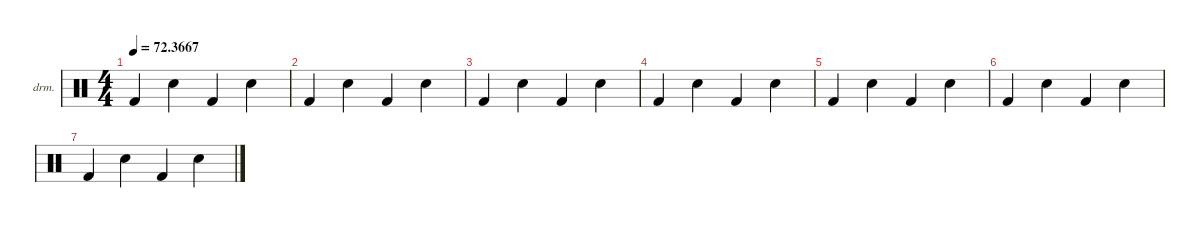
\defaultSystemsLayout 4
\hideDynamics
\bracketExtendMode nobrackets
\firstSystemTrackNameOrientation horizontal
\otherSystemsTrackNameOrientation horizontal
\track ("Drumkit" "drm.") {instrument percussion}
\staff {score}
\articulation defaults
\ts (4 4)
\tempo
72.3667
\accidentals auto
\clef neutral
\ottava regular
\simile none
\ks c "Kick (hit) 2".4{dy mf beam Up} "Snare (hit) 2".4{beam Down} "Kick (hit) 2".4{beam Up} "Snare (hit) 2".4{beam Down}
|
"Kick (hit) 2".4{beam Up} "Snare (hit) 2".4{beam Down} "Kick (hit) 2".4{beam Up} "Snare (hit) 2".4{beam Down} |
"Kick (hit) 2".4{beam Up} "Snare (hit) 2".4{beam Down} "Kick (hit) 2".4{beam Up} "Snare (hit) 2".4{beam Down} |
"Kick (hit) 2".4{beam Up} "Snare (hit) 2".4{beam Down} "Kick (hit) 2".4{beam Up} "Snare (hit) 2".4{beam Down} |
"Kick (hit) 2".4{beam Up} "Snare (hit) 2".4{beam Down} "Kick (hit) 2".4{beam Up} "Snare (hit) 2".4{beam Down} |
"Kick (hit) 2".4{beam Up} "Snare (hit) 2".4{beam Down} "Kick (hit) 2".4{beam Up} "Snare (hit) 2".4{beam Down} |
"Kick (hit) 2".4{beam Up} "Snare (hit) 2".4{beam Down} "Kick (hit) 2".4{beam Up} "Snare (hit) 2".4{beam Down}
